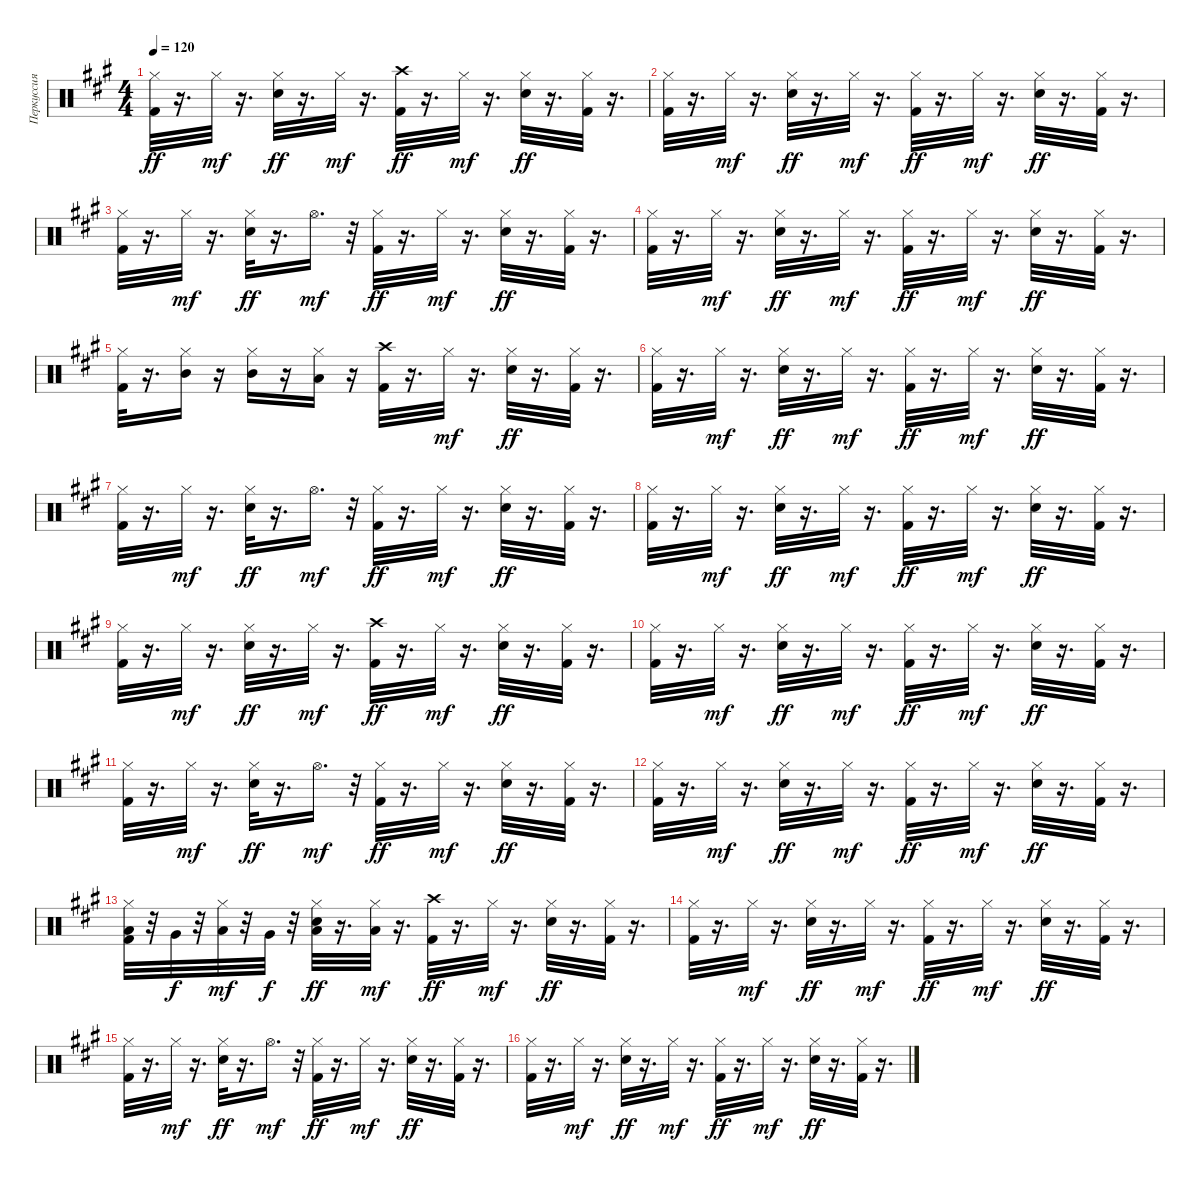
\track ("Перкуссия" "Перкуссия") {instrument percussion}
\staff {score}
\articulation defaults
\ts (4 4)
\tempo 120
\clef neutral
\ks f#minor
("Hi-Hat (closed)" "Kick (hit) 2").32{dy ff} r.16{d} "Hi-Hat (closed)".32{dy mf} r.16{d} ("Hi-Hat (closed)" "Snare (hit) 2").32{dy ff} r.16{d} "Hi-Hat (closed)".32{dy mf} r.16{d} ("Crash high (hit)" "Kick (hit) 2").32{dy ff} r.16{d} "Hi-Hat (closed)".32{dy mf} r.16{d} ("Hi-Hat (closed)" "Snare (hit) 2").32{dy ff} r.16{d} ("Hi-Hat (closed)" "Kick (hit) 2").32 r.16{d} |
("Hi-Hat (closed)" "Kick (hit) 2").32 r.16{d} "Hi-Hat (closed)".32{dy mf} r.16{d} ("Hi-Hat (closed)" "Snare (hit) 2").32{dy ff} r.16{d} "Hi-Hat (closed)".32{dy mf} r.16{d} ("Hi-Hat (closed)" "Kick (hit) 2").32{dy ff} r.16{d} "Hi-Hat (closed)".32{dy mf} r.16{d} ("Hi-Hat (closed)" "Snare (hit) 2").32{dy ff} r.16{d} ("Hi-Hat (closed)" "Kick (hit) 2").32 r.16{d} |
("Hi-Hat (closed)" "Kick (hit) 2").32 r.16{d} "Hi-Hat (closed)".32{dy mf} r.16{d} ("Hi-Hat (closed)" "Snare (hit) 2").32{dy ff} r.16{d} "Hi-Hat (open)".16{d dy mf} r.32 ("Hi-Hat (closed)" "Kick (hit) 2").32{dy ff} r.16{d} "Hi-Hat (closed)".32{dy mf} r.16{d} ("Hi-Hat (closed)" "Snare (hit) 2").32{dy ff} r.16{d} ("Hi-Hat (closed)" "Kick (hit) 2").32 r.16{d} |
("Hi-Hat (closed)" "Kick (hit) 2").32 r.16{d} "Hi-Hat (closed)".32{dy mf} r.16{d} ("Hi-Hat (closed)" "Snare (hit) 2").32{dy ff} r.16{d} "Hi-Hat (closed)".32{dy mf} r.16{d} ("Hi-Hat (closed)" "Kick (hit) 2").32{dy ff} r.16{d} "Hi-Hat (closed)".32{dy mf} r.16{d} ("Hi-Hat (closed)" "Snare (hit) 2").32{dy ff} r.16{d} ("Hi-Hat (closed)" "Kick (hit) 2").32 r.16{d} |
("Hi-Hat (closed)" "Kick (hit) 2").32 r.16{d} ("Hi-Hat (closed)" "Mid Tom (hit)").16 r.16 ("Hi-Hat (closed)" "Mid Tom (hit)").16 r.16 ("Hi-Hat (closed)" "Low Tom (hit)").16 r.16 ("Crash high (hit)" "Kick (hit) 2").32 r.16{d} "Hi-Hat (closed)".32{dy mf} r.16{d} ("Hi-Hat (closed)" "Snare (hit) 2").32{dy ff} r.16{d} ("Hi-Hat (closed)" "Kick (hit) 2").32 r.16{d} |
("Hi-Hat (closed)" "Kick (hit) 2").32 r.16{d} "Hi-Hat (closed)".32{dy mf} r.16{d} ("Hi-Hat (closed)" "Snare (hit) 2").32{dy ff} r.16{d} "Hi-Hat (closed)".32{dy mf} r.16{d} ("Hi-Hat (closed)" "Kick (hit) 2").32{dy ff} r.16{d} "Hi-Hat (closed)".32{dy mf} r.16{d} ("Hi-Hat (closed)" "Snare (hit) 2").32{dy ff} r.16{d} ("Hi-Hat (closed)" "Kick (hit) 2").32 r.16{d} |
("Hi-Hat (closed)" "Kick (hit) 2").32 r.16{d} "Hi-Hat (closed)".32{dy mf} r.16{d} ("Hi-Hat (closed)" "Snare (hit) 2").32{dy ff} r.16{d} "Hi-Hat (open)".16{d dy mf} r.32 ("Hi-Hat (closed)" "Kick (hit) 2").32{dy ff} r.16{d} "Hi-Hat (closed)".32{dy mf} r.16{d} ("Hi-Hat (closed)" "Snare (hit) 2").32{dy ff} r.16{d} ("Hi-Hat (closed)" "Kick (hit) 2").32 r.16{d} |
("Hi-Hat (closed)" "Kick (hit) 2").32 r.16{d} "Hi-Hat (closed)".32{dy mf} r.16{d} ("Hi-Hat (closed)" "Snare (hit) 2").32{dy ff} r.16{d} "Hi-Hat (closed)".32{dy mf} r.16{d} ("Hi-Hat (closed)" "Kick (hit) 2").32{dy ff} r.16{d} "Hi-Hat (closed)".32{dy mf} r.16{d} ("Hi-Hat (closed)" "Snare (hit) 2").32{dy ff} r.16{d} ("Hi-Hat (closed)" "Kick (hit) 2").32 r.16{d} |
("Hi-Hat (closed)" "Kick (hit) 2").32 r.16{d} "Hi-Hat (closed)".32{dy mf} r.16{d} ("Hi-Hat (closed)" "Snare (hit) 2").32{dy ff} r.16{d} "Hi-Hat (closed)".32{dy mf} r.16{d} ("Crash high (hit)" "Kick (hit) 2").32{dy ff} r.16{d} "Hi-Hat (closed)".32{dy mf} r.16{d} ("Hi-Hat (closed)" "Snare (hit) 2").32{dy ff} r.16{d} ("Hi-Hat (closed)" "Kick (hit) 2").32 r.16{d} |
("Hi-Hat (closed)" "Kick (hit) 2").32 r.16{d} "Hi-Hat (closed)".32{dy mf} r.16{d} ("Hi-Hat (closed)" "Snare (hit) 2").32{dy ff} r.16{d} "Hi-Hat (closed)".32{dy mf} r.16{d} ("Hi-Hat (closed)" "Kick (hit) 2").32{dy ff} r.16{d} "Hi-Hat (closed)".32{dy mf} r.16{d} ("Hi-Hat (closed)" "Snare (hit) 2").32{dy ff} r.16{d} ("Hi-Hat (closed)" "Kick (hit) 2").32 r.16{d} |
("Hi-Hat (closed)" "Kick (hit) 2").32 r.16{d} "Hi-Hat (closed)".32{dy mf} r.16{d} ("Hi-Hat (closed)" "Snare (hit) 2").32{dy ff} r.16{d} "Hi-Hat (open)".16{d dy mf} r.32 ("Hi-Hat (closed)" "Kick (hit) 2").32{dy ff} r.16{d} "Hi-Hat (closed)".32{dy mf} r.16{d} ("Hi-Hat (closed)" "Snare (hit) 2").32{dy ff} r.16{d} ("Hi-Hat (closed)" "Kick (hit) 2").32 r.16{d} |
("Hi-Hat (closed)" "Kick (hit) 2").32 r.16{d} "Hi-Hat (closed)".32{dy mf} r.16{d} ("Hi-Hat (closed)" "Snare (hit) 2").32{dy ff} r.16{d} "Hi-Hat (closed)".32{dy mf} r.16{d} ("Hi-Hat (closed)" "Kick (hit) 2").32{dy ff} r.16{d} "Hi-Hat (closed)".32{dy mf} r.16{d} ("Hi-Hat (closed)" "Snare (hit) 2").32{dy ff} r.16{d} ("Hi-Hat (closed)" "Kick (hit) 2").32 r.16{d} |
("Hi-Hat (closed)" "Kick (hit) 2" "Low Tom (hit)").32 r.32 "Very Low Tom (hit)".32{dy f} r.32 ("Hi-Hat (closed)" "Low Tom (hit)").32{dy mf} r.32 "Very Low Tom (hit)".32{dy f} r.32 ("Hi-Hat (closed)" "Low Tom (hit)" "Snare (hit) 2").32{dy ff} r.16{d} ("Hi-Hat (closed)" "Low Tom (hit)").32{dy mf} r.16{d} ("Crash high (hit)" "Kick (hit) 2").32{dy ff} r.16{d} "Hi-Hat (closed)".32{dy mf} r.16{d} ("Hi-Hat (closed)" "Snare (hit) 2").32{dy ff} r.16{d} ("Hi-Hat (closed)" "Kick (hit) 2").32 r.16{d} |
("Hi-Hat (closed)" "Kick (hit) 2").32 r.16{d} "Hi-Hat (closed)".32{dy mf} r.16{d} ("Hi-Hat (closed)" "Snare (hit) 2").32{dy ff} r.16{d} "Hi-Hat (closed)".32{dy mf} r.16{d} ("Hi-Hat (closed)" "Kick (hit) 2").32{dy ff} r.16{d} "Hi-Hat (closed)".32{dy mf} r.16{d} ("Hi-Hat (closed)" "Snare (hit) 2").32{dy ff} r.16{d} ("Hi-Hat (closed)" "Kick (hit) 2").32 r.16{d} |
("Hi-Hat (closed)" "Kick (hit) 2").32 r.16{d} "Hi-Hat (closed)".32{dy mf} r.16{d} ("Hi-Hat (closed)" "Snare (hit) 2").32{dy ff} r.16{d} "Hi-Hat (open)".16{d dy mf} r.32 ("Hi-Hat (closed)" "Kick (hit) 2").32{dy ff} r.16{d} "Hi-Hat (closed)".32{dy mf} r.16{d} ("Hi-Hat (closed)" "Snare (hit) 2").32{dy ff} r.16{d} ("Hi-Hat (closed)" "Kick (hit) 2").32 r.16{d} |
("Hi-Hat (closed)" "Kick (hit) 2").32 r.16{d} "Hi-Hat (closed)".32{dy mf} r.16{d} ("Hi-Hat (closed)" "Snare (hit) 2").32{dy ff} r.16{d} "Hi-Hat (closed)".32{dy mf} r.16{d} ("Hi-Hat (closed)" "Kick (hit) 2").32{dy ff} r.16{d} "Hi-Hat (closed)".32{dy mf} r.16{d} ("Hi-Hat (closed)" "Snare (hit) 2").32{dy ff} r.16{d} ("Hi-Hat (closed)" "Kick (hit) 2").32 r.16{d}
